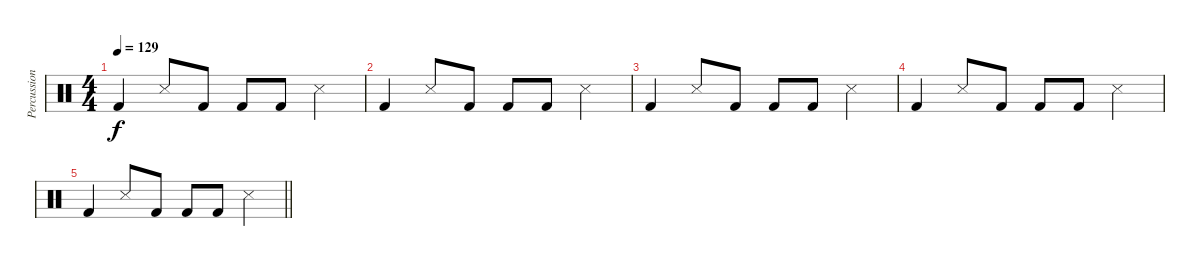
\track ("Percussion (Joel)" "Percussion") {instrument percussion}
\staff {score}
\articulation defaults
\ts (4 4)
\tempo 129
\clef neutral
\ks c "Kick (hit) 2".4{dy f} "Snare (side stick) 3".8 "Kick (hit) 2".8 "Kick (hit) 2".8 "Kick (hit) 2".8 "Snare (side stick) 3".4
|
"Kick (hit) 2".4 "Snare (side stick) 3".8 "Kick (hit) 2".8 "Kick (hit) 2".8 "Kick (hit) 2".8 "Snare (side stick) 3".4 |
"Kick (hit) 2".4 "Snare (side stick) 3".8 "Kick (hit) 2".8 "Kick (hit) 2".8 "Kick (hit) 2".8 "Snare (side stick) 3".4 |
"Kick (hit) 2".4 "Snare (side stick) 3".8 "Kick (hit) 2".8 "Kick (hit) 2".8 "Kick (hit) 2".8 "Snare (side stick) 3".4 |
\barLineRight lightlight "Kick (hit) 2".4 "Snare (side stick) 3".8 "Kick (hit) 2".8 "Kick (hit) 2".8 "Kick (hit) 2".8 "Snare (side stick) 3".4
